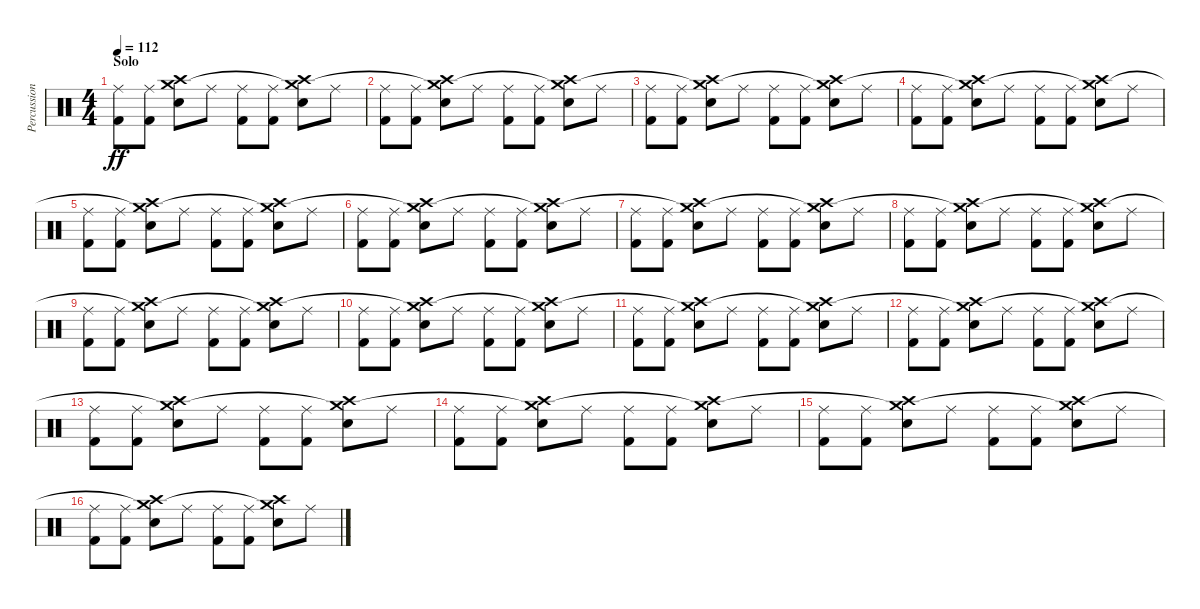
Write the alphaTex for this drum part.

\track ("Percussion" "Percussion") {instrument percussion}
\staff {score}
\articulation defaults
\ts (4 4)
\section ("" "Solo")
\tempo 112
\clef neutral
\ks c
("Kick (hit) 2" "Ride (middle)").8{dy ff} ("Kick (hit) 2" "Ride (middle)").8 ("Crash high (hit)" "Electric Snare (hit)" "Crash medium (hit)"{t}).8 "Ride (middle)".8 ("Kick (hit) 2" "Ride (middle)").8 ("Kick (hit) 2" "Ride (middle)").8 ("Crash high (hit)" "Electric Snare (hit)" "Crash medium (hit)"{t}).8 "Ride (middle)".8 |
("Kick (hit) 2" "Ride (middle)").8 ("Kick (hit) 2" "Ride (middle)").8 ("Crash high (hit)" "Electric Snare (hit)" "Crash medium (hit)"{t}).8 "Ride (middle)".8 ("Kick (hit) 2" "Ride (middle)").8 ("Kick (hit) 2" "Ride (middle)").8 ("Crash high (hit)" "Electric Snare (hit)" "Crash medium (hit)"{t}).8 "Ride (middle)".8 |
("Kick (hit) 2" "Ride (middle)").8 ("Kick (hit) 2" "Ride (middle)").8 ("Crash high (hit)" "Electric Snare (hit)" "Crash medium (hit)"{t}).8 "Ride (middle)".8 ("Kick (hit) 2" "Ride (middle)").8 ("Kick (hit) 2" "Ride (middle)").8 ("Crash high (hit)" "Electric Snare (hit)" "Crash medium (hit)"{t}).8 "Ride (middle)".8 |
("Kick (hit) 2" "Ride (middle)").8 ("Kick (hit) 2" "Ride (middle)").8 ("Crash high (hit)" "Electric Snare (hit)" "Crash medium (hit)"{t}).8 "Ride (middle)".8 ("Kick (hit) 2" "Ride (middle)").8 ("Kick (hit) 2" "Ride (middle)").8 ("Crash high (hit)" "Electric Snare (hit)" "Crash medium (hit)"{t}).8 "Ride (middle)".8 |
("Kick (hit) 2" "Ride (middle)").8 ("Kick (hit) 2" "Ride (middle)").8 ("Crash high (hit)" "Electric Snare (hit)" "Crash medium (hit)"{t}).8 "Ride (middle)".8 ("Kick (hit) 2" "Ride (middle)").8 ("Kick (hit) 2" "Ride (middle)").8 ("Crash high (hit)" "Electric Snare (hit)" "Crash medium (hit)"{t}).8 "Ride (middle)".8 |
("Kick (hit) 2" "Ride (middle)").8 ("Kick (hit) 2" "Ride (middle)").8 ("Crash high (hit)" "Electric Snare (hit)" "Crash medium (hit)"{t}).8 "Ride (middle)".8 ("Kick (hit) 2" "Ride (middle)").8 ("Kick (hit) 2" "Ride (middle)").8 ("Crash high (hit)" "Electric Snare (hit)" "Crash medium (hit)"{t}).8 "Ride (middle)".8 |
("Kick (hit) 2" "Ride (middle)").8 ("Kick (hit) 2" "Ride (middle)").8 ("Crash high (hit)" "Electric Snare (hit)" "Crash medium (hit)"{t}).8 "Ride (middle)".8 ("Kick (hit) 2" "Ride (middle)").8 ("Kick (hit) 2" "Ride (middle)").8 ("Crash high (hit)" "Electric Snare (hit)" "Crash medium (hit)"{t}).8 "Ride (middle)".8 |
("Kick (hit) 2" "Ride (middle)").8 ("Kick (hit) 2" "Ride (middle)").8 ("Crash high (hit)" "Electric Snare (hit)" "Crash medium (hit)"{t}).8 "Ride (middle)".8 ("Kick (hit) 2" "Ride (middle)").8 ("Kick (hit) 2" "Ride (middle)").8 ("Crash high (hit)" "Electric Snare (hit)" "Crash medium (hit)"{t}).8 "Ride (middle)".8 |
("Kick (hit) 2" "Ride (middle)").8 ("Kick (hit) 2" "Ride (middle)").8 ("Crash high (hit)" "Electric Snare (hit)" "Crash medium (hit)"{t}).8 "Ride (middle)".8 ("Kick (hit) 2" "Ride (middle)").8 ("Kick (hit) 2" "Ride (middle)").8 ("Crash high (hit)" "Electric Snare (hit)" "Crash medium (hit)"{t}).8 "Ride (middle)".8 |
("Kick (hit) 2" "Ride (middle)").8 ("Kick (hit) 2" "Ride (middle)").8 ("Crash high (hit)" "Electric Snare (hit)" "Crash medium (hit)"{t}).8 "Ride (middle)".8 ("Kick (hit) 2" "Ride (middle)").8 ("Kick (hit) 2" "Ride (middle)").8 ("Crash high (hit)" "Electric Snare (hit)" "Crash medium (hit)"{t}).8 "Ride (middle)".8 |
("Kick (hit) 2" "Ride (middle)").8 ("Kick (hit) 2" "Ride (middle)").8 ("Crash high (hit)" "Electric Snare (hit)" "Crash medium (hit)"{t}).8 "Ride (middle)".8 ("Kick (hit) 2" "Ride (middle)").8 ("Kick (hit) 2" "Ride (middle)").8 ("Crash high (hit)" "Electric Snare (hit)" "Crash medium (hit)"{t}).8 "Ride (middle)".8 |
("Kick (hit) 2" "Ride (middle)").8 ("Kick (hit) 2" "Ride (middle)").8 ("Crash high (hit)" "Electric Snare (hit)" "Crash medium (hit)"{t}).8 "Ride (middle)".8 ("Kick (hit) 2" "Ride (middle)").8 ("Kick (hit) 2" "Ride (middle)").8 ("Crash high (hit)" "Electric Snare (hit)" "Crash medium (hit)"{t}).8 "Ride (middle)".8 |
("Kick (hit) 2" "Ride (middle)").8 ("Kick (hit) 2" "Ride (middle)").8 ("Crash high (hit)" "Electric Snare (hit)" "Crash medium (hit)"{t}).8 "Ride (middle)".8 ("Kick (hit) 2" "Ride (middle)").8 ("Kick (hit) 2" "Ride (middle)").8 ("Crash high (hit)" "Electric Snare (hit)" "Crash medium (hit)"{t}).8 "Ride (middle)".8 |
("Kick (hit) 2" "Ride (middle)").8 ("Kick (hit) 2" "Ride (middle)").8 ("Crash high (hit)" "Electric Snare (hit)" "Crash medium (hit)"{t}).8 "Ride (middle)".8 ("Kick (hit) 2" "Ride (middle)").8 ("Kick (hit) 2" "Ride (middle)").8 ("Crash high (hit)" "Electric Snare (hit)" "Crash medium (hit)"{t}).8 "Ride (middle)".8 |
("Kick (hit) 2" "Ride (middle)").8 ("Kick (hit) 2" "Ride (middle)").8 ("Crash high (hit)" "Electric Snare (hit)" "Crash medium (hit)"{t}).8 "Ride (middle)".8 ("Kick (hit) 2" "Ride (middle)").8 ("Kick (hit) 2" "Ride (middle)").8 ("Crash high (hit)" "Electric Snare (hit)" "Crash medium (hit)"{t}).8 "Ride (middle)".8 |
("Kick (hit) 2" "Ride (middle)").8 ("Kick (hit) 2" "Ride (middle)").8 ("Crash high (hit)" "Electric Snare (hit)" "Crash medium (hit)"{t}).8 "Ride (middle)".8 ("Kick (hit) 2" "Ride (middle)").8 ("Kick (hit) 2" "Ride (middle)").8 ("Crash high (hit)" "Electric Snare (hit)" "Crash medium (hit)"{t}).8 "Ride (middle)".8
